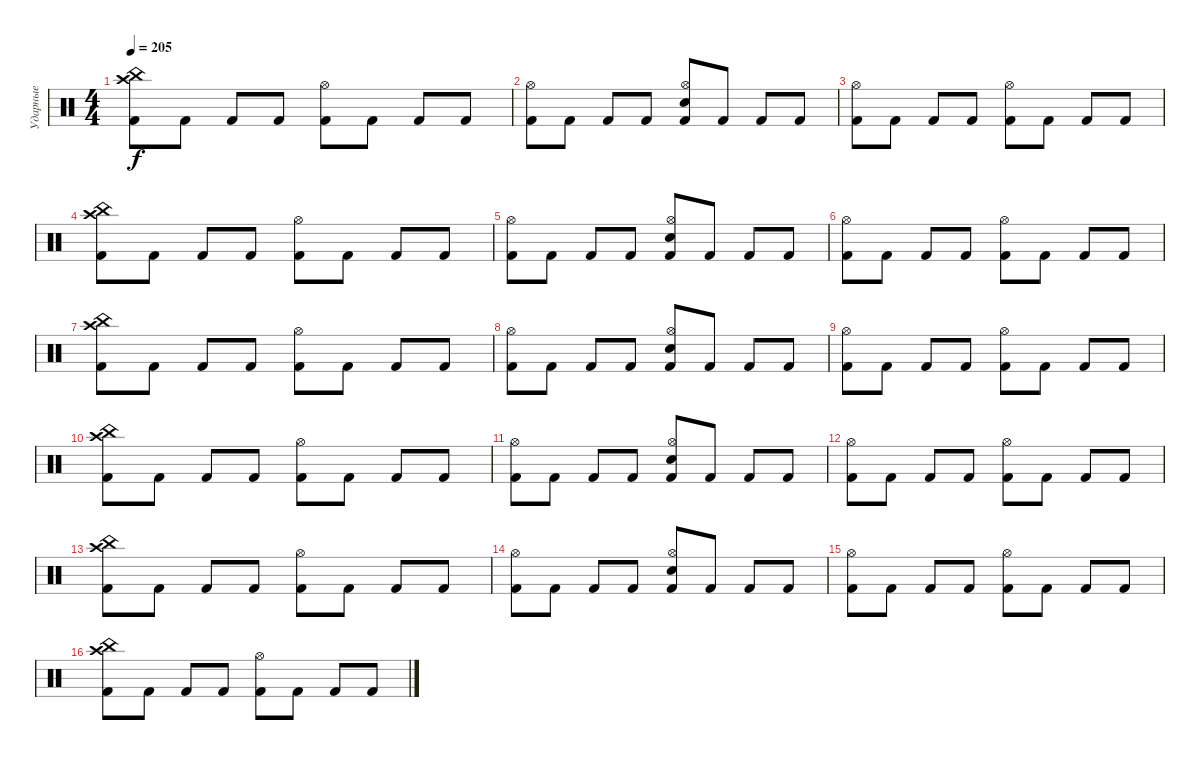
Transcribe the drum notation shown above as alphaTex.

\track ("Ударные" "Ударные") {instrument percussion}
\staff {score}
\articulation defaults
\ts (4 4)
\tempo 205
\clef neutral
\ks c
("Kick (hit) 2" "Crash high (hit)" "China (hit)").8{dy f} "Kick (hit) 2".8 "Kick (hit) 2".8 "Kick (hit) 2".8 ("Kick (hit) 2" "Hi-Hat (open)").8 "Kick (hit) 2".8 "Kick (hit) 2".8 "Kick (hit) 2".8 |
("Kick (hit) 2" "Hi-Hat (open)").8 "Kick (hit) 2".8 "Kick (hit) 2".8 "Kick (hit) 2".8 ("Kick (hit) 2" "Electric Snare (hit)" "Hi-Hat (open)").8 "Kick (hit) 2".8 "Kick (hit) 2".8 "Kick (hit) 2".8 |
("Kick (hit) 2" "Hi-Hat (open)").8 "Kick (hit) 2".8 "Kick (hit) 2".8 "Kick (hit) 2".8 ("Kick (hit) 2" "Hi-Hat (open)").8 "Kick (hit) 2".8 "Kick (hit) 2".8 "Kick (hit) 2".8 |
("Kick (hit) 2" "Crash high (hit)" "China (hit)").8 "Kick (hit) 2".8 "Kick (hit) 2".8 "Kick (hit) 2".8 ("Kick (hit) 2" "Hi-Hat (open)").8 "Kick (hit) 2".8 "Kick (hit) 2".8 "Kick (hit) 2".8 |
("Kick (hit) 2" "Hi-Hat (open)").8 "Kick (hit) 2".8 "Kick (hit) 2".8 "Kick (hit) 2".8 ("Kick (hit) 2" "Electric Snare (hit)" "Hi-Hat (open)").8 "Kick (hit) 2".8 "Kick (hit) 2".8 "Kick (hit) 2".8 |
("Kick (hit) 2" "Hi-Hat (open)").8 "Kick (hit) 2".8 "Kick (hit) 2".8 "Kick (hit) 2".8 ("Kick (hit) 2" "Hi-Hat (open)").8 "Kick (hit) 2".8 "Kick (hit) 2".8 "Kick (hit) 2".8 |
("Kick (hit) 2" "Crash high (hit)" "China (hit)").8 "Kick (hit) 2".8 "Kick (hit) 2".8 "Kick (hit) 2".8 ("Kick (hit) 2" "Hi-Hat (open)").8 "Kick (hit) 2".8 "Kick (hit) 2".8 "Kick (hit) 2".8 |
("Kick (hit) 2" "Hi-Hat (open)").8 "Kick (hit) 2".8 "Kick (hit) 2".8 "Kick (hit) 2".8 ("Kick (hit) 2" "Electric Snare (hit)" "Hi-Hat (open)").8 "Kick (hit) 2".8 "Kick (hit) 2".8 "Kick (hit) 2".8 |
("Kick (hit) 2" "Hi-Hat (open)").8 "Kick (hit) 2".8 "Kick (hit) 2".8 "Kick (hit) 2".8 ("Kick (hit) 2" "Hi-Hat (open)").8 "Kick (hit) 2".8 "Kick (hit) 2".8 "Kick (hit) 2".8 |
("Kick (hit) 2" "Crash high (hit)" "China (hit)").8 "Kick (hit) 2".8 "Kick (hit) 2".8 "Kick (hit) 2".8 ("Kick (hit) 2" "Hi-Hat (open)").8 "Kick (hit) 2".8 "Kick (hit) 2".8 "Kick (hit) 2".8 |
("Kick (hit) 2" "Hi-Hat (open)").8 "Kick (hit) 2".8 "Kick (hit) 2".8 "Kick (hit) 2".8 ("Kick (hit) 2" "Electric Snare (hit)" "Hi-Hat (open)").8 "Kick (hit) 2".8 "Kick (hit) 2".8 "Kick (hit) 2".8 |
("Kick (hit) 2" "Hi-Hat (open)").8 "Kick (hit) 2".8 "Kick (hit) 2".8 "Kick (hit) 2".8 ("Kick (hit) 2" "Hi-Hat (open)").8 "Kick (hit) 2".8 "Kick (hit) 2".8 "Kick (hit) 2".8 |
("Kick (hit) 2" "Crash high (hit)" "China (hit)").8 "Kick (hit) 2".8 "Kick (hit) 2".8 "Kick (hit) 2".8 ("Kick (hit) 2" "Hi-Hat (open)").8 "Kick (hit) 2".8 "Kick (hit) 2".8 "Kick (hit) 2".8 |
("Kick (hit) 2" "Hi-Hat (open)").8 "Kick (hit) 2".8 "Kick (hit) 2".8 "Kick (hit) 2".8 ("Kick (hit) 2" "Electric Snare (hit)" "Hi-Hat (open)").8 "Kick (hit) 2".8 "Kick (hit) 2".8 "Kick (hit) 2".8 |
("Kick (hit) 2" "Hi-Hat (open)").8 "Kick (hit) 2".8 "Kick (hit) 2".8 "Kick (hit) 2".8 ("Kick (hit) 2" "Hi-Hat (open)").8 "Kick (hit) 2".8 "Kick (hit) 2".8 "Kick (hit) 2".8 |
("Kick (hit) 2" "Crash high (hit)" "China (hit)").8 "Kick (hit) 2".8 "Kick (hit) 2".8 "Kick (hit) 2".8 ("Kick (hit) 2" "Hi-Hat (open)").8 "Kick (hit) 2".8 "Kick (hit) 2".8 "Kick (hit) 2".8
